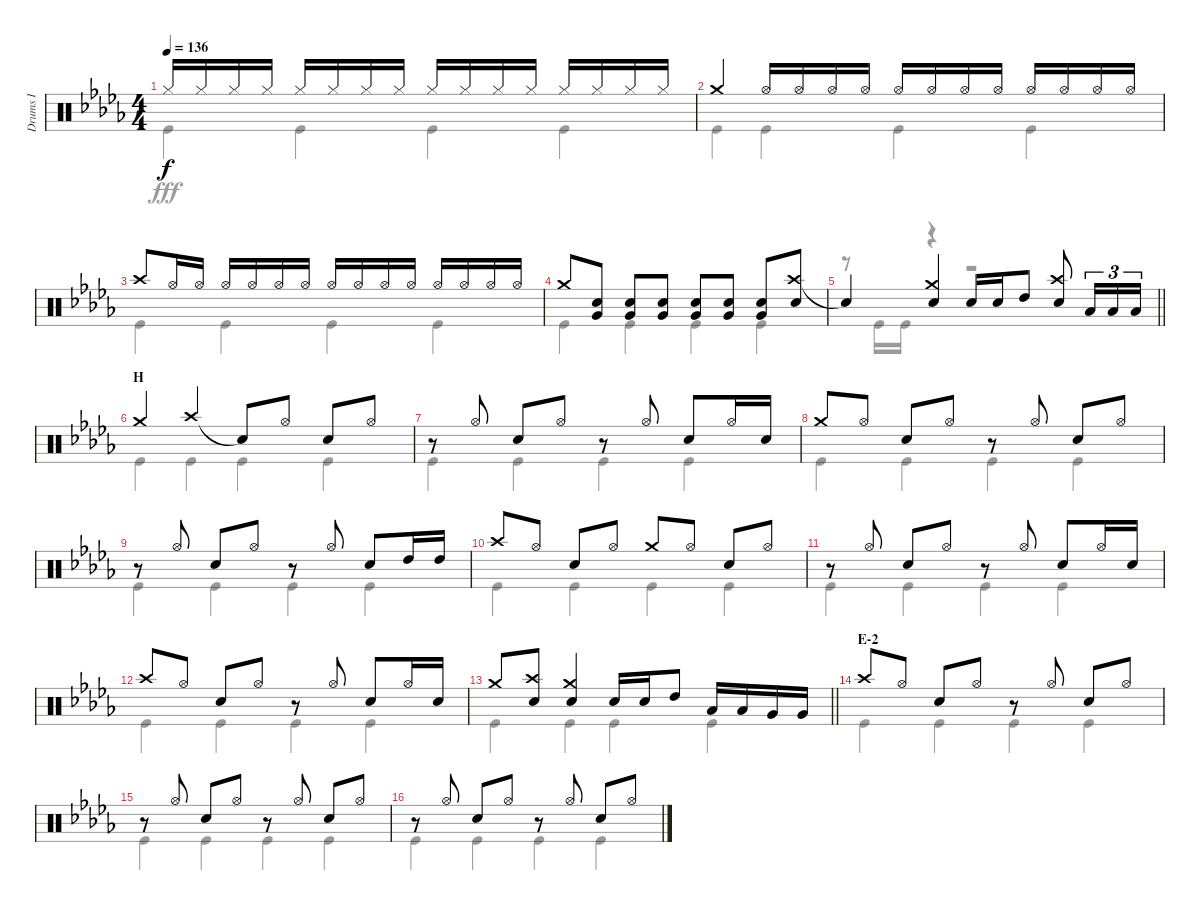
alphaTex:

\track ("Drums I" "Drums I") {instrument percussion}
\staff {score}
\articulation defaults
\voice
\ts (4 4)
\tempo 136
\clef neutral
\ks db "Hi-Hat (closed)".16{dy f} "Hi-Hat (closed)".16 "Hi-Hat (closed)".16 "Hi-Hat (closed)".16 "Hi-Hat (closed)".16 "Hi-Hat (closed)".16 "Hi-Hat (closed)".16 "Hi-Hat (closed)".16 "Hi-Hat (closed)".16 "Hi-Hat (closed)".16 "Hi-Hat (closed)".16 "Hi-Hat (closed)".16 "Hi-Hat (closed)".16 "Hi-Hat (closed)".16 "Hi-Hat (closed)".16 "Hi-Hat (closed)".16
|
"Crash medium (hit)".4 "Hi-Hat (open)".16 "Hi-Hat (open)".16 "Hi-Hat (open)".16 "Hi-Hat (open)".16 "Hi-Hat (open)".16 "Hi-Hat (open)".16 "Hi-Hat (open)".16 "Hi-Hat (open)".16 "Hi-Hat (open)".16 "Hi-Hat (open)".16 "Hi-Hat (open)".16 "Hi-Hat (open)".16 |
"Crash high (hit)".8 "Hi-Hat (open)".16 "Hi-Hat (open)".16 "Hi-Hat (open)".16 "Hi-Hat (open)".16 "Hi-Hat (open)".16 "Hi-Hat (open)".16 "Hi-Hat (open)".16 "Hi-Hat (open)".16 "Hi-Hat (open)".16 "Hi-Hat (open)".16 "Hi-Hat (open)".16 "Hi-Hat (open)".16 "Hi-Hat (open)".16 "Hi-Hat (open)".16 |
"Crash medium (hit)".8 ("Snare (hit) 2" "Very Low Tom (hit)").8 ("Snare (hit) 2" "Very Low Tom (hit)").8 ("Snare (hit) 2" "Very Low Tom (hit)").8 ("Snare (hit) 2" "Very Low Tom (hit)").8 ("Snare (hit) 2" "Very Low Tom (hit)").8 ("Snare (hit) 2" "Very Low Tom (hit)").8 ("Crash high (hit)" "Snare (hit) 2").8 |
\barLineRight lightlight "Snare (hit)"{t}.4
("Crash medium (hit)" "Snare (hit) 2").4 "Snare (hit) 2".16 "Snare (hit) 2".16 "High Tom (hit)".8 ("Crash high (hit)" "Snare (hit) 2").8 "Low Tom (hit)".16{tu (3 2)} "Low Tom (hit)".16{tu (3 2)} "Low Tom (hit)".16{tu (3 2)} |
\section ("" "H")
"Crash medium (hit)".4 "Crash high (hit)".4 "Snare (hit)"{t}.8 "Hi-Hat (open)".8 "Snare (hit) 2".8 "Hi-Hat (open)".8 |
r.8 "Hi-Hat (open)".8 "Snare (hit) 2".8 "Hi-Hat (open)".8 r.8 "Hi-Hat (open)".8 "Snare (hit) 2".8 "Hi-Hat (open)".16 "Snare (hit) 2".16 |
"Crash medium (hit)".8 "Hi-Hat (open)".8 "Snare (hit) 2".8 "Hi-Hat (open)".8 r.8 "Hi-Hat (open)".8 "Snare (hit) 2".8 "Hi-Hat (open)".8 |
r.8 "Hi-Hat (open)".8 "Snare (hit) 2".8 "Hi-Hat (open)".8 r.8 "Hi-Hat (open)".8 "Snare (hit) 2".8 "High Tom (hit)".16 "High Tom (hit)".16 |
"Crash high (hit)".8 "Hi-Hat (open)".8 "Snare (hit) 2".8 "Hi-Hat (open)".8 "Crash medium (hit)".8 "Hi-Hat (open)".8 "Snare (hit) 2".8 "Hi-Hat (open)".8 |
r.8 "Hi-Hat (open)".8 "Snare (hit) 2".8 "Hi-Hat (open)".8 r.8 "Hi-Hat (open)".8 "Snare (hit) 2".8 "Hi-Hat (open)".16 "Snare (hit) 2".16 |
"Crash high (hit)".8 "Hi-Hat (open)".8 "Snare (hit) 2".8 "Hi-Hat (open)".8 r.8 "Hi-Hat (open)".8 "Snare (hit) 2".8 "Hi-Hat (open)".16 "Snare (hit) 2".16 |
\barLineRight lightlight "Crash medium (hit)".8
("Crash high (hit)" "Snare (hit) 2").8 ("Crash medium (hit)" "Snare (hit) 2").4 "Snare (hit) 2".16 "Snare (hit) 2".16 "High Tom (hit)".8 "Low Tom (hit)".16 "Low Tom (hit)".16 "Very Low Tom (hit)".16 "Very Low Tom (hit)".16 |
\section ("" "E-2")
"Crash high (hit)".8 "Hi-Hat (open)".8 "Snare (hit) 2".8 "Hi-Hat (open)".8 r.8 "Hi-Hat (open)".8 "Snare (hit) 2".8 "Hi-Hat (open)".8 |
r.8 "Hi-Hat (open)".8 "Snare (hit) 2".8 "Hi-Hat (open)".8 r.8 "Hi-Hat (open)".8 "Snare (hit) 2".8 "Hi-Hat (open)".8 |
r.8 "Hi-Hat (open)".8 "Snare (hit) 2".8 "Hi-Hat (open)".8 r.8 "Hi-Hat (open)".8 "Snare (hit) 2".8 "Hi-Hat (open)".8
\voice
\clef neutral
\ottava regular
\simile none
\ks db "Kick (hit)".4{dy fff} "Kick (hit)".4 "Kick (hit)".4 "Kick (hit)".4
|
"Kick (hit)".4 "Kick (hit)".4 "Kick (hit)".4 "Kick (hit)".4 |
"Kick (hit)".4 "Kick (hit)".4 "Kick (hit)".4 "Kick (hit)".4 |
"Kick (hit)".4 "Kick (hit)".4 "Kick (hit)".4 "Kick (hit)".4 |
\barLineRight lightlight
r.8 "Kick (hit)".16 "Kick (hit)".16 r.4 r.2 |
"Kick (hit)".4 "Kick (hit)".4 "Kick (hit)".4 "Kick (hit)".4 |
"Kick (hit)".4 "Kick (hit)".4 "Kick (hit)".4 "Kick (hit)".4 |
"Kick (hit)".4 "Kick (hit)".4 "Kick (hit)".4 "Kick (hit)".4 |
"Kick (hit)".4 "Kick (hit)".4 "Kick (hit)".4 "Kick (hit)".4 |
"Kick (hit)".4 "Kick (hit)".4 "Kick (hit)".4 "Kick (hit)".4 |
"Kick (hit)".4 "Kick (hit)".4 "Kick (hit)".4 "Kick (hit)".4 |
"Kick (hit)".4 "Kick (hit)".4 "Kick (hit)".4 "Kick (hit)".4 |
\barLineRight lightlight "Kick (hit)".4 "Kick (hit)".4 "Kick (hit)".4 "Kick (hit)".4
|
"Kick (hit)".4 "Kick (hit)".4 "Kick (hit)".4 "Kick (hit)".4 |
"Kick (hit)".4 "Kick (hit)".4 "Kick (hit)".4 "Kick (hit)".4 |
"Kick (hit)".4 "Kick (hit)".4 "Kick (hit)".4 "Kick (hit)".4
